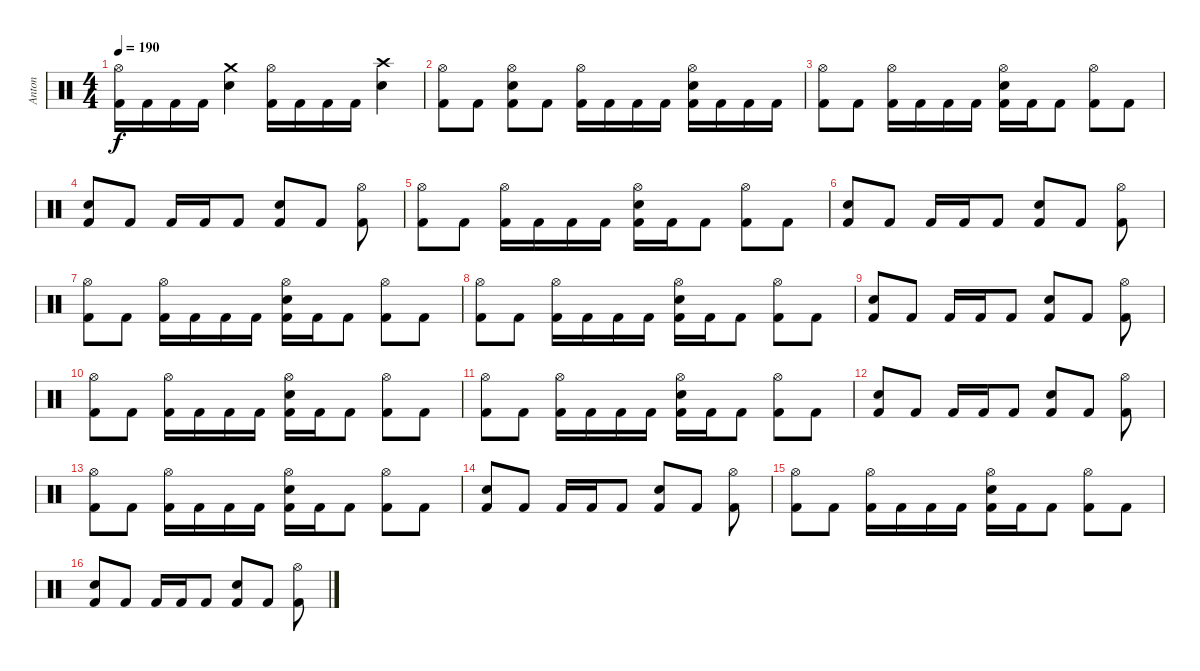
\track ("Anton" "Anton") {instrument percussion}
\staff {score}
\articulation defaults
\ts (4 4)
\tempo 190
\clef neutral
\ks c
("Hi-Hat (open)" "Kick (hit) 2").16{dy f} "Kick (hit) 2".16 "Kick (hit) 2".16 "Kick (hit) 2".16 ("Crash medium (hit)" "Electric Snare (hit)").4 ("Hi-Hat (open)" "Kick (hit) 2").16 "Kick (hit) 2".16 "Kick (hit) 2".16 "Kick (hit) 2".16 ("Crash high (hit)" "Electric Snare (hit)").4 |
("Hi-Hat (open)" "Kick (hit) 2").8 "Kick (hit) 2".8 ("Hi-Hat (open)" "Electric Snare (hit)" "Kick (hit) 2").8 "Kick (hit) 2".8 ("Hi-Hat (open)" "Kick (hit) 2").16 "Kick (hit) 2".16 "Kick (hit) 2".16 "Kick (hit) 2".16 ("Hi-Hat (open)" "Electric Snare (hit)" "Kick (hit) 2").16 "Kick (hit) 2".16 "Kick (hit) 2".16 "Kick (hit) 2".16 |
("Kick (hit) 2" "Hi-Hat (open)").8 "Kick (hit) 2".8 ("Hi-Hat (open)" "Kick (hit) 2").16 "Kick (hit) 2".16 "Kick (hit) 2".16 "Kick (hit) 2".16 ("Hi-Hat (open)" "Electric Snare (hit)" "Kick (hit) 2").16 "Kick (hit) 2".16 "Kick (hit) 2".8 ("Hi-Hat (open)" "Kick (hit) 2").8 "Kick (hit) 2".8 |
("Kick (hit) 2" "Snare (hit) 2").8 "Kick (hit) 2".8 "Kick (hit) 2".16 "Kick (hit) 2".16 "Kick (hit) 2".8 ("Kick (hit) 2" "Snare (hit) 2").8 "Kick (hit) 2".8 ("Kick (hit) 2" "Hi-Hat (open)").8 |
("Kick (hit) 2" "Hi-Hat (open)").8 "Kick (hit) 2".8 ("Hi-Hat (open)" "Kick (hit) 2").16 "Kick (hit) 2".16 "Kick (hit) 2".16 "Kick (hit) 2".16 ("Hi-Hat (open)" "Electric Snare (hit)" "Kick (hit) 2").16 "Kick (hit) 2".16 "Kick (hit) 2".8 ("Hi-Hat (open)" "Kick (hit) 2").8 "Kick (hit) 2".8 |
("Kick (hit) 2" "Snare (hit) 2").8 "Kick (hit) 2".8 "Kick (hit) 2".16 "Kick (hit) 2".16 "Kick (hit) 2".8 ("Kick (hit) 2" "Snare (hit) 2").8 "Kick (hit) 2".8 ("Kick (hit) 2" "Hi-Hat (open)").8 |
("Kick (hit) 2" "Hi-Hat (open)").8 "Kick (hit) 2".8 ("Hi-Hat (open)" "Kick (hit) 2").16 "Kick (hit) 2".16 "Kick (hit) 2".16 "Kick (hit) 2".16 ("Hi-Hat (open)" "Electric Snare (hit)" "Kick (hit) 2").16 "Kick (hit) 2".16 "Kick (hit) 2".8 ("Hi-Hat (open)" "Kick (hit) 2").8 "Kick (hit) 2".8 |
("Kick (hit) 2" "Hi-Hat (open)").8 "Kick (hit) 2".8 ("Hi-Hat (open)" "Kick (hit) 2").16 "Kick (hit) 2".16 "Kick (hit) 2".16 "Kick (hit) 2".16 ("Hi-Hat (open)" "Electric Snare (hit)" "Kick (hit) 2").16 "Kick (hit) 2".16 "Kick (hit) 2".8 ("Hi-Hat (open)" "Kick (hit) 2").8 "Kick (hit) 2".8 |
("Kick (hit) 2" "Snare (hit) 2").8 "Kick (hit) 2".8 "Kick (hit) 2".16 "Kick (hit) 2".16 "Kick (hit) 2".8 ("Kick (hit) 2" "Snare (hit) 2").8 "Kick (hit) 2".8 ("Kick (hit) 2" "Hi-Hat (open)").8 |
("Kick (hit) 2" "Hi-Hat (open)").8 "Kick (hit) 2".8 ("Hi-Hat (open)" "Kick (hit) 2").16 "Kick (hit) 2".16 "Kick (hit) 2".16 "Kick (hit) 2".16 ("Hi-Hat (open)" "Electric Snare (hit)" "Kick (hit) 2").16 "Kick (hit) 2".16 "Kick (hit) 2".8 ("Hi-Hat (open)" "Kick (hit) 2").8 "Kick (hit) 2".8 |
("Kick (hit) 2" "Hi-Hat (open)").8 "Kick (hit) 2".8 ("Hi-Hat (open)" "Kick (hit) 2").16 "Kick (hit) 2".16 "Kick (hit) 2".16 "Kick (hit) 2".16 ("Hi-Hat (open)" "Electric Snare (hit)" "Kick (hit) 2").16 "Kick (hit) 2".16 "Kick (hit) 2".8 ("Hi-Hat (open)" "Kick (hit) 2").8 "Kick (hit) 2".8 |
("Kick (hit) 2" "Snare (hit) 2").8 "Kick (hit) 2".8 "Kick (hit) 2".16 "Kick (hit) 2".16 "Kick (hit) 2".8 ("Kick (hit) 2" "Snare (hit) 2").8 "Kick (hit) 2".8 ("Kick (hit) 2" "Hi-Hat (open)").8 |
("Kick (hit) 2" "Hi-Hat (open)").8 "Kick (hit) 2".8 ("Hi-Hat (open)" "Kick (hit) 2").16 "Kick (hit) 2".16 "Kick (hit) 2".16 "Kick (hit) 2".16 ("Hi-Hat (open)" "Electric Snare (hit)" "Kick (hit) 2").16 "Kick (hit) 2".16 "Kick (hit) 2".8 ("Hi-Hat (open)" "Kick (hit) 2").8 "Kick (hit) 2".8 |
("Kick (hit) 2" "Snare (hit) 2").8 "Kick (hit) 2".8 "Kick (hit) 2".16 "Kick (hit) 2".16 "Kick (hit) 2".8 ("Kick (hit) 2" "Snare (hit) 2").8 "Kick (hit) 2".8 ("Kick (hit) 2" "Hi-Hat (open)").8 |
("Kick (hit) 2" "Hi-Hat (open)").8 "Kick (hit) 2".8 ("Hi-Hat (open)" "Kick (hit) 2").16 "Kick (hit) 2".16 "Kick (hit) 2".16 "Kick (hit) 2".16 ("Hi-Hat (open)" "Electric Snare (hit)" "Kick (hit) 2").16 "Kick (hit) 2".16 "Kick (hit) 2".8 ("Hi-Hat (open)" "Kick (hit) 2").8 "Kick (hit) 2".8 |
("Kick (hit) 2" "Snare (hit) 2").8 "Kick (hit) 2".8 "Kick (hit) 2".16 "Kick (hit) 2".16 "Kick (hit) 2".8 ("Kick (hit) 2" "Snare (hit) 2").8 "Kick (hit) 2".8 ("Kick (hit) 2" "Hi-Hat (open)").8
